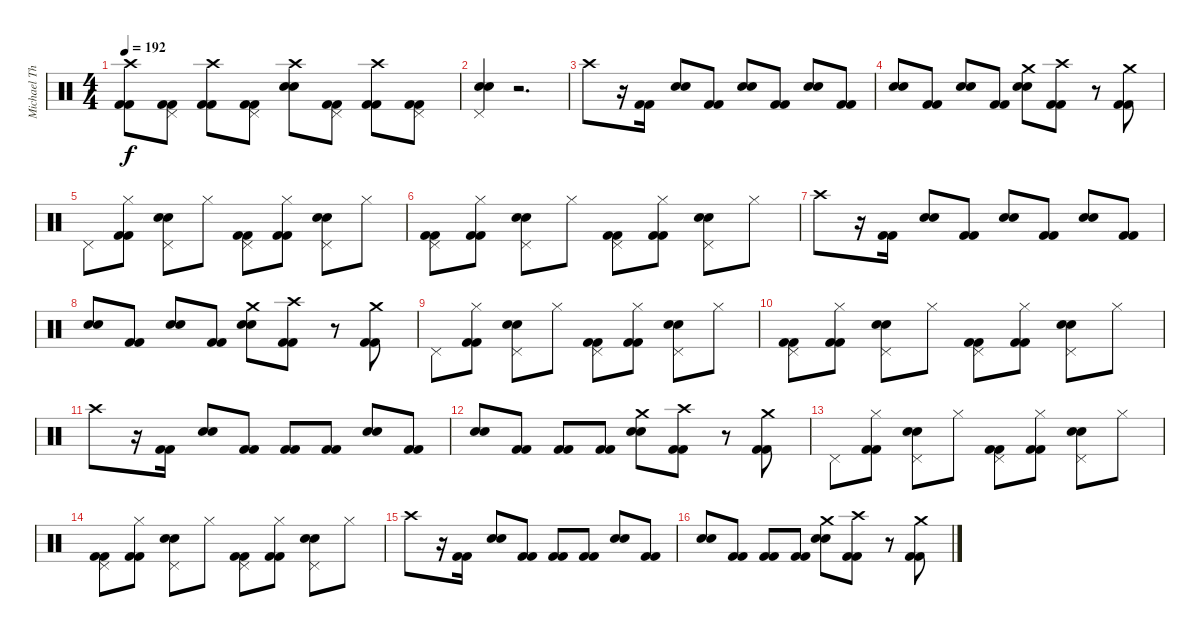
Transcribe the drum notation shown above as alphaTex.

\track ("Michael Thomas" "Michael Th") {instrument percussion}
\staff {score}
\articulation defaults
\ts (4 4)
\tempo 192
\clef neutral
\ks c
("Crash high (hit)" "Kick (hit) 2" "Kick (hit) 2").8{dy f} ("Pedal Hi-Hat (hit)" "Kick (hit) 2" "Kick (hit) 2").8 ("Crash high (hit)" "Kick (hit) 2" "Kick (hit) 2").8 ("Pedal Hi-Hat (hit)" "Kick (hit) 2" "Kick (hit) 2").8 ("Crash high (hit)" "Snare (hit) 2" "Electric Snare (hit)").8 ("Pedal Hi-Hat (hit)" "Kick (hit) 2" "Kick (hit) 2").8 ("Crash high (hit)" "Kick (hit) 2" "Kick (hit) 2").8 ("Pedal Hi-Hat (hit)" "Kick (hit) 2" "Kick (hit) 2").8 |
("Pedal Hi-Hat (hit)" "Snare (hit) 2" "Electric Snare (hit)").4 r.2{d} |
"Crash high (hit)".8 r.16 ("Kick (hit) 2" "Kick (hit) 2").16 ("Snare (hit) 2" "Electric Snare (hit)").8 ("Kick (hit) 2" "Kick (hit) 2").8 ("Snare (hit) 2" "Electric Snare (hit)").8 ("Kick (hit) 2" "Kick (hit) 2").8 ("Snare (hit) 2" "Electric Snare (hit)").8 ("Kick (hit) 2" "Kick (hit) 2").8 |
("Snare (hit) 2" "Electric Snare (hit)").8 ("Kick (hit) 2" "Kick (hit) 2").8 ("Snare (hit) 2" "Electric Snare (hit)").8 ("Kick (hit) 2" "Kick (hit) 2").8 ("Crash medium (hit)" "Snare (hit) 2" "Electric Snare (hit)").8 ("Crash high (hit)" "Kick (hit) 2" "Kick (hit) 2").8 r.8 ("Crash medium (hit)" "Kick (hit) 2" "Kick (hit) 2").8 |
"Pedal Hi-Hat (hit)".8 ("Hi-Hat (closed)" "Kick (hit) 2" "Kick (hit) 2").8 ("Pedal Hi-Hat (hit)" "Snare (hit) 2" "Electric Snare (hit)").8 "Hi-Hat (closed)".8 ("Pedal Hi-Hat (hit)" "Kick (hit) 2" "Kick (hit) 2").8 ("Hi-Hat (closed)" "Kick (hit) 2" "Kick (hit) 2").8 ("Pedal Hi-Hat (hit)" "Snare (hit) 2" "Electric Snare (hit)").8 "Hi-Hat (closed)".8 |
("Pedal Hi-Hat (hit)" "Kick (hit) 2" "Kick (hit) 2").8 ("Hi-Hat (closed)" "Kick (hit) 2" "Kick (hit) 2").8 ("Pedal Hi-Hat (hit)" "Snare (hit) 2" "Electric Snare (hit)").8 "Hi-Hat (closed)".8 ("Pedal Hi-Hat (hit)" "Kick (hit) 2" "Kick (hit) 2").8 ("Hi-Hat (closed)" "Kick (hit) 2" "Kick (hit) 2").8 ("Pedal Hi-Hat (hit)" "Snare (hit) 2" "Electric Snare (hit)").8 "Hi-Hat (closed)".8 |
"Crash high (hit)".8 r.16 ("Kick (hit) 2" "Kick (hit) 2").16 ("Snare (hit) 2" "Electric Snare (hit)").8 ("Kick (hit) 2" "Kick (hit) 2").8 ("Snare (hit) 2" "Electric Snare (hit)").8 ("Kick (hit) 2" "Kick (hit) 2").8 ("Snare (hit) 2" "Electric Snare (hit)").8 ("Kick (hit) 2" "Kick (hit) 2").8 |
("Snare (hit) 2" "Electric Snare (hit)").8 ("Kick (hit) 2" "Kick (hit) 2").8 ("Snare (hit) 2" "Electric Snare (hit)").8 ("Kick (hit) 2" "Kick (hit) 2").8 ("Crash medium (hit)" "Snare (hit) 2" "Electric Snare (hit)").8 ("Crash high (hit)" "Kick (hit) 2" "Kick (hit) 2").8 r.8 ("Crash medium (hit)" "Kick (hit) 2" "Kick (hit) 2").8 |
"Pedal Hi-Hat (hit)".8 ("Hi-Hat (closed)" "Kick (hit) 2" "Kick (hit) 2").8 ("Pedal Hi-Hat (hit)" "Snare (hit) 2" "Electric Snare (hit)").8 "Hi-Hat (closed)".8 ("Pedal Hi-Hat (hit)" "Kick (hit) 2" "Kick (hit) 2").8 ("Hi-Hat (closed)" "Kick (hit) 2" "Kick (hit) 2").8 ("Pedal Hi-Hat (hit)" "Snare (hit) 2" "Electric Snare (hit)").8 "Hi-Hat (closed)".8 |
("Pedal Hi-Hat (hit)" "Kick (hit) 2" "Kick (hit) 2").8 ("Hi-Hat (closed)" "Kick (hit) 2" "Kick (hit) 2").8 ("Pedal Hi-Hat (hit)" "Snare (hit) 2" "Electric Snare (hit)").8 "Hi-Hat (closed)".8 ("Pedal Hi-Hat (hit)" "Kick (hit) 2" "Kick (hit) 2").8 ("Hi-Hat (closed)" "Kick (hit) 2" "Kick (hit) 2").8 ("Pedal Hi-Hat (hit)" "Snare (hit) 2" "Electric Snare (hit)").8 "Hi-Hat (closed)".8 |
"Crash high (hit)".8 r.16 ("Kick (hit) 2" "Kick (hit) 2").16 ("Snare (hit) 2" "Electric Snare (hit)").8 ("Kick (hit) 2" "Kick (hit) 2").8 ("Kick (hit) 2" "Kick (hit) 2").8 ("Kick (hit) 2" "Kick (hit) 2").8 ("Snare (hit) 2" "Electric Snare (hit)").8 ("Kick (hit) 2" "Kick (hit) 2").8 |
("Snare (hit) 2" "Electric Snare (hit)").8 ("Kick (hit) 2" "Kick (hit) 2").8 ("Kick (hit) 2" "Kick (hit) 2").8 ("Kick (hit) 2" "Kick (hit) 2").8 ("Crash medium (hit)" "Snare (hit) 2" "Electric Snare (hit)").8 ("Crash high (hit)" "Kick (hit) 2" "Kick (hit) 2").8 r.8 ("Crash medium (hit)" "Kick (hit) 2" "Kick (hit) 2").8 |
"Pedal Hi-Hat (hit)".8 ("Hi-Hat (closed)" "Kick (hit) 2" "Kick (hit) 2").8 ("Pedal Hi-Hat (hit)" "Snare (hit) 2" "Electric Snare (hit)").8 "Hi-Hat (closed)".8 ("Pedal Hi-Hat (hit)" "Kick (hit) 2" "Kick (hit) 2").8 ("Hi-Hat (closed)" "Kick (hit) 2" "Kick (hit) 2").8 ("Pedal Hi-Hat (hit)" "Snare (hit) 2" "Electric Snare (hit)").8 "Hi-Hat (closed)".8 |
("Pedal Hi-Hat (hit)" "Kick (hit) 2" "Kick (hit) 2").8 ("Hi-Hat (closed)" "Kick (hit) 2" "Kick (hit) 2").8 ("Pedal Hi-Hat (hit)" "Snare (hit) 2" "Electric Snare (hit)").8 "Hi-Hat (closed)".8 ("Pedal Hi-Hat (hit)" "Kick (hit) 2" "Kick (hit) 2").8 ("Hi-Hat (closed)" "Kick (hit) 2" "Kick (hit) 2").8 ("Pedal Hi-Hat (hit)" "Snare (hit) 2" "Electric Snare (hit)").8 "Hi-Hat (closed)".8 |
"Crash high (hit)".8 r.16 ("Kick (hit) 2" "Kick (hit) 2").16 ("Snare (hit) 2" "Electric Snare (hit)").8 ("Kick (hit) 2" "Kick (hit) 2").8 ("Kick (hit) 2" "Kick (hit) 2").8 ("Kick (hit) 2" "Kick (hit) 2").8 ("Snare (hit) 2" "Electric Snare (hit)").8 ("Kick (hit) 2" "Kick (hit) 2").8 |
("Snare (hit) 2" "Electric Snare (hit)").8 ("Kick (hit) 2" "Kick (hit) 2").8 ("Kick (hit) 2" "Kick (hit) 2").8 ("Kick (hit) 2" "Kick (hit) 2").8 ("Crash medium (hit)" "Snare (hit) 2" "Electric Snare (hit)").8 ("Crash high (hit)" "Kick (hit) 2" "Kick (hit) 2").8 r.8 ("Crash medium (hit)" "Kick (hit) 2" "Kick (hit) 2").8
